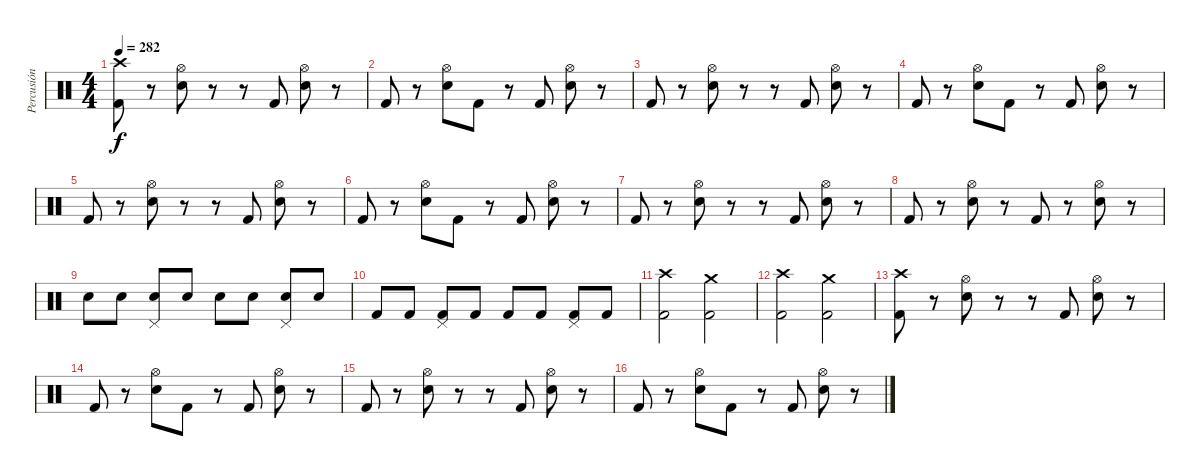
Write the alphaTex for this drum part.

\track ("Percusión" "Percusión") {instrument percussion}
\staff {score}
\articulation defaults
\ts (4 4)
\tempo 282
\clef neutral
\ks c
("Kick (hit) 2" "Crash high (hit)").8{dy f} r.8 ("Snare (hit) 2" "Hi-Hat (open)").8 r.8 r.8 "Kick (hit) 2".8 ("Snare (hit) 2" "Hi-Hat (open)").8 r.8 |
"Kick (hit) 2".8 r.8 ("Snare (hit) 2" "Hi-Hat (open)").8 "Kick (hit) 2".8 r.8 "Kick (hit) 2".8 ("Snare (hit) 2" "Hi-Hat (open)").8 r.8 |
"Kick (hit) 2".8 r.8 ("Snare (hit) 2" "Hi-Hat (open)").8 r.8 r.8 "Kick (hit) 2".8 ("Snare (hit) 2" "Hi-Hat (open)").8 r.8 |
"Kick (hit) 2".8 r.8 ("Snare (hit) 2" "Hi-Hat (open)").8 "Kick (hit) 2".8 r.8 "Kick (hit) 2".8 ("Snare (hit) 2" "Hi-Hat (open)").8 r.8 |
"Kick (hit) 2".8 r.8 ("Snare (hit) 2" "Hi-Hat (open)").8 r.8 r.8 "Kick (hit) 2".8 ("Snare (hit) 2" "Hi-Hat (open)").8 r.8 |
"Kick (hit) 2".8 r.8 ("Snare (hit) 2" "Hi-Hat (open)").8 "Kick (hit) 2".8 r.8 "Kick (hit) 2".8 ("Snare (hit) 2" "Hi-Hat (open)").8 r.8 |
"Kick (hit) 2".8 r.8 ("Snare (hit) 2" "Hi-Hat (open)").8 r.8 r.8 "Kick (hit) 2".8 ("Snare (hit) 2" "Hi-Hat (open)").8 r.8 |
"Kick (hit) 2".8 r.8 ("Snare (hit) 2" "Hi-Hat (open)").8 r.8 "Kick (hit) 2".8 r.8 ("Snare (hit) 2" "Hi-Hat (open)").8 r.8 |
"Snare (hit) 2".8 "Snare (hit) 2".8 ("Snare (hit) 2" "Pedal Hi-Hat (hit)").8 "Snare (hit) 2".8 "Snare (hit) 2".8 "Snare (hit) 2".8 ("Snare (hit) 2" "Pedal Hi-Hat (hit)").8 "Snare (hit) 2".8 |
"Kick (hit) 2".8 "Kick (hit) 2".8 ("Kick (hit) 2" "Pedal Hi-Hat (hit)").8 "Kick (hit) 2".8 "Kick (hit) 2".8 "Kick (hit) 2".8 ("Kick (hit) 2" "Pedal Hi-Hat (hit)").8 "Kick (hit) 2".8 |
("Kick (hit) 2" "Crash high (hit)").2 ("Kick (hit) 2" "Crash medium (hit)").2 |
("Kick (hit) 2" "Crash high (hit)").2 ("Kick (hit) 2" "Crash medium (hit)").2 |
("Kick (hit) 2" "Crash high (hit)").8 r.8 ("Snare (hit) 2" "Hi-Hat (open)").8 r.8 r.8 "Kick (hit) 2".8 ("Snare (hit) 2" "Hi-Hat (open)").8 r.8 |
"Kick (hit) 2".8 r.8 ("Snare (hit) 2" "Hi-Hat (open)").8 "Kick (hit) 2".8 r.8 "Kick (hit) 2".8 ("Snare (hit) 2" "Hi-Hat (open)").8 r.8 |
"Kick (hit) 2".8 r.8 ("Snare (hit) 2" "Hi-Hat (open)").8 r.8 r.8 "Kick (hit) 2".8 ("Snare (hit) 2" "Hi-Hat (open)").8 r.8 |
"Kick (hit) 2".8 r.8 ("Snare (hit) 2" "Hi-Hat (open)").8 "Kick (hit) 2".8 r.8 "Kick (hit) 2".8 ("Snare (hit) 2" "Hi-Hat (open)").8 r.8
